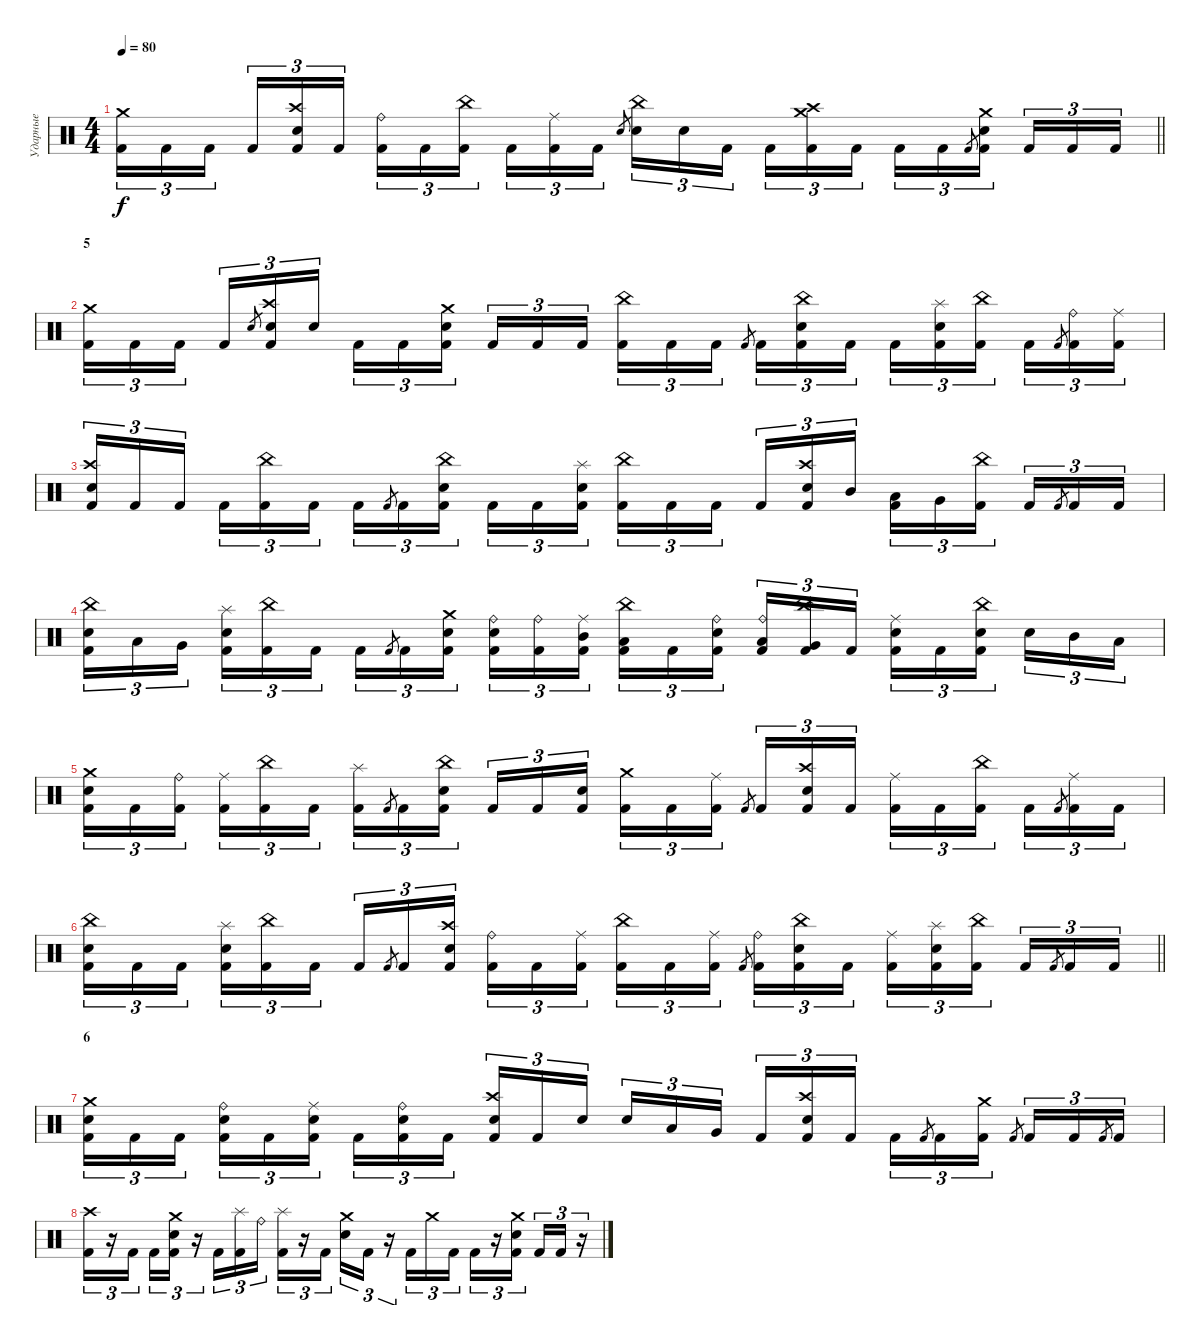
\track ("Ударные" "Ударные") {instrument percussion}
\staff {score}
\articulation defaults
\ts (4 4)
\tempo 80
\clef neutral
\barLineRight lightlight
\ks c
("Crash medium (hit)" "Kick (hit) 2").16{tu (3 2) dy f} "Kick (hit) 2".16{tu (3 2)} "Kick (hit) 2".16{tu (3 2) beam splitsecondary} "Kick (hit) 2".16{tu (3 2)} ("Crash high (hit)" "Electric Snare (hit)" "Kick (hit) 2").16{tu (3 2)} "Kick (hit) 2".16{tu (3 2)} ("Ride (bell)" "Kick (hit) 2").16{tu (3 2)} "Kick (hit) 2".16{tu (3 2)} ("China (hit)" "Kick (hit) 2").16{tu (3 2) beam splitsecondary} "Kick (hit) 2".16{tu (3 2)} ("Ride (middle)" "Kick (hit) 2").16{tu (3 2)} "Kick (hit) 2".16{tu (3 2)} "Electric Snare (hit)".8{gr} ("China (hit)" "Electric Snare (hit)").16{tu (3 2)} "Electric Snare (hit)".16{tu (3 2)} "Kick (hit) 2".16{tu (3 2) beam splitsecondary} "Kick (hit) 2".16{tu (3 2)} ("Crash medium (hit)" "Crash high (hit)" "Kick (hit) 2").16{tu (3 2)} "Kick (hit) 2".16{tu (3 2)} "Kick (hit) 2".16{tu (3 2)} "Kick (hit) 2".16{tu (3 2)} "Kick (hit) 2".8{gr} ("Crash medium (hit)" "Electric Snare (hit)" "Kick (hit) 2").16{tu (3 2) beam splitsecondary} "Kick (hit) 2".16{tu (3 2)} "Kick (hit) 2".16{tu (3 2)} "Kick (hit) 2".16{tu (3 2)} |
\section ("" "5")
("Crash medium (hit)" "Kick (hit) 2").16{tu (3 2)} "Kick (hit) 2".16{tu (3 2)} "Kick (hit) 2".16{tu (3 2) beam splitsecondary} "Kick (hit) 2".16{tu (3 2)} "Electric Snare (hit)".8{gr} ("Crash high (hit)" "Electric Snare (hit)" "Kick (hit) 2").16{tu (3 2)} "Electric Snare (hit)".16{tu (3 2)} "Kick (hit) 2".16{tu (3 2)} "Kick (hit) 2".16{tu (3 2)} ("Crash medium (hit)" "Electric Snare (hit)" "Kick (hit) 2").16{tu (3 2) beam splitsecondary} "Kick (hit) 2".16{tu (3 2)} "Kick (hit) 2".16{tu (3 2)} "Kick (hit) 2".16{tu (3 2)} ("China (hit)" "Kick (hit) 2").16{tu (3 2)} "Kick (hit) 2".16{tu (3 2)} "Kick (hit) 2".16{tu (3 2)} "Kick (hit) 2".8{gr beam splitsecondary} "Kick (hit) 2".16{tu (3 2)} ("China (hit)" "Electric Snare (hit)" "Kick (hit) 2").16{tu (3 2)} "Kick (hit) 2".16{tu (3 2)} "Kick (hit) 2".16{tu (3 2)} ("Splash (hit)" "Electric Snare (hit)" "Kick (hit) 2").16{tu (3 2)} ("China (hit)" "Kick (hit) 2").16{tu (3 2) beam splitsecondary} "Kick (hit) 2".16{tu (3 2)} "Kick (hit) 2".8{gr} ("Ride (bell)" "Kick (hit) 2").16{tu (3 2)} ("Ride (middle)" "Kick (hit) 2").16{tu (3 2)} |
("Crash high (hit)" "Electric Snare (hit)" "Kick (hit) 2").16{tu (3 2)} "Kick (hit) 2".16{tu (3 2)} "Kick (hit) 2".16{tu (3 2) beam splitsecondary} "Kick (hit) 2".16{tu (3 2)} ("China (hit)" "Kick (hit) 2").16{tu (3 2)} "Kick (hit) 2".16{tu (3 2)} "Kick (hit) 2".16{tu (3 2)} "Kick (hit) 2".8{gr} "Kick (hit) 2".16{tu (3 2)} ("China (hit)" "Electric Snare (hit)" "Kick (hit) 2").16{tu (3 2) beam splitsecondary} "Kick (hit) 2".16{tu (3 2)} "Kick (hit) 2".16{tu (3 2)} ("Splash (hit)" "Electric Snare (hit)" "Kick (hit) 2").16{tu (3 2)} ("China (hit)" "Kick (hit) 2").16{tu (3 2)} "Kick (hit) 2".16{tu (3 2)} "Kick (hit) 2".16{tu (3 2) beam splitsecondary} "Kick (hit) 2".16{tu (3 2)} ("Crash high (hit)" "Electric Snare (hit)" "Kick (hit) 2").16{tu (3 2)} "Mid Tom (hit)".16{tu (3 2)} ("Low Tom (hit)" "Kick (hit) 2").16{tu (3 2)} "Very Low Tom (hit)".16{tu (3 2)} ("China (hit)" "Kick (hit) 2").16{tu (3 2) beam splitsecondary} "Kick (hit) 2".16{tu (3 2)} "Kick (hit) 2".8{gr} "Kick (hit) 2".16{tu (3 2)} "Kick (hit) 2".16{tu (3 2)} |
("China (hit)" "Electric Snare (hit)" "Kick (hit) 2").16{tu (3 2)} "Low Tom (hit)".16{tu (3 2)} "Very Low Tom (hit)".16{tu (3 2) beam splitsecondary} ("Splash (hit)" "Electric Snare (hit)" "Kick (hit) 2").16{tu (3 2)} ("China (hit)" "Kick (hit) 2").16{tu (3 2)} "Kick (hit) 2".16{tu (3 2)} "Kick (hit) 2".16{tu (3 2)} "Kick (hit) 2".8{gr} "Kick (hit) 2".16{tu (3 2)} ("Crash medium (hit)" "Electric Snare (hit)" "Kick (hit) 2").16{tu (3 2) beam splitsecondary} ("Ride (bell)" "Electric Snare (hit)" "Kick (hit) 2").16{tu (3 2)} ("Ride (bell)" "Kick (hit) 2").16{tu (3 2)} ("Ride (middle)" "Mid Tom (hit)" "Kick (hit) 2").16{tu (3 2)} ("China (hit)" "Low Tom (hit)" "Kick (hit) 2").16{tu (3 2)} "Kick (hit) 2".16{tu (3 2)} ("Ride (bell)" "Electric Snare (hit)" "Kick (hit) 2").16{tu (3 2) beam splitsecondary} ("Ride (bell)" "Low Tom (hit)" "Kick (hit) 2").16{tu (3 2)} ("China (hit)" "Very Low Tom (hit)" "Kick (hit) 2").16{tu (3 2)} "Kick (hit) 2".16{tu (3 2)} ("Ride (middle)" "Electric Snare (hit)" "Kick (hit) 2").16{tu (3 2)} "Kick (hit) 2".16{tu (3 2)} ("China (hit)" "Electric Snare (hit)" "Kick (hit) 2").16{tu (3 2) beam splitsecondary} "Electric Snare (hit)".16{tu (3 2)} "Mid Tom (hit)".16{tu (3 2)} "Low Tom (hit)".16{tu (3 2)} |
("Crash medium (hit)" "Electric Snare (hit)" "Kick (hit) 2").16{tu (3 2)} "Kick (hit) 2".16{tu (3 2)} ("Ride (bell)" "Kick (hit) 2").16{tu (3 2) beam splitsecondary} ("Ride (middle)" "Kick (hit) 2").16{tu (3 2)} ("China (hit)" "Kick (hit) 2").16{tu (3 2)} "Kick (hit) 2".16{tu (3 2)} ("Splash (hit)" "Kick (hit) 2").16{tu (3 2)} "Kick (hit) 2".8{gr} "Kick (hit) 2".16{tu (3 2)} ("China (hit)" "Electric Snare (hit)" "Kick (hit) 2").16{tu (3 2) beam splitsecondary} "Kick (hit) 2".16{tu (3 2)} "Kick (hit) 2".16{tu (3 2)} ("Electric Snare (hit)" "Kick (hit) 2").16{tu (3 2)} ("Crash medium (hit)" "Kick (hit) 2").16{tu (3 2)} "Kick (hit) 2".16{tu (3 2)} ("Ride (middle)" "Kick (hit) 2").16{tu (3 2)} "Kick (hit) 2".8{gr beam splitsecondary} "Kick (hit) 2".16{tu (3 2)} ("Crash high (hit)" "Electric Snare (hit)" "Kick (hit) 2").16{tu (3 2)} "Kick (hit) 2".16{tu (3 2)} ("Ride (middle)" "Kick (hit) 2").16{tu (3 2)} "Kick (hit) 2".16{tu (3 2)} ("China (hit)" "Kick (hit) 2").16{tu (3 2) beam splitsecondary} "Kick (hit) 2".16{tu (3 2)} "Kick (hit) 2".8{gr} ("Ride (middle)" "Kick (hit) 2").16{tu (3 2)} "Kick (hit) 2".16{tu (3 2)} |
\barLineRight lightlight
("China (hit)" "Electric Snare (hit)" "Kick (hit) 2").16{tu (3 2)} "Kick (hit) 2".16{tu (3 2)} "Kick (hit) 2".16{tu (3 2) beam splitsecondary} ("Splash (hit)" "Electric Snare (hit)" "Kick (hit) 2").16{tu (3 2)} ("China (hit)" "Kick (hit) 2").16{tu (3 2)} "Kick (hit) 2".16{tu (3 2)} "Kick (hit) 2".16{tu (3 2)} "Kick (hit) 2".8{gr} "Kick (hit) 2".16{tu (3 2)} ("Crash high (hit)" "Electric Snare (hit)" "Kick (hit) 2").16{tu (3 2) beam splitsecondary} ("Ride (bell)" "Kick (hit) 2").16{tu (3 2)} "Kick (hit) 2".16{tu (3 2)} ("Ride (middle)" "Kick (hit) 2").16{tu (3 2)} ("China (hit)" "Kick (hit) 2").16{tu (3 2)} "Kick (hit) 2".16{tu (3 2)} ("Ride (middle)" "Kick (hit) 2").16{tu (3 2)} "Kick (hit) 2".8{gr beam splitsecondary} ("Ride (bell)" "Kick (hit) 2").16{tu (3 2)} ("China (hit)" "Electric Snare (hit)" "Kick (hit) 2").16{tu (3 2)} "Kick (hit) 2".16{tu (3 2)} ("Ride (middle)" "Kick (hit) 2").16{tu (3 2)} ("Splash (hit)" "Electric Snare (hit)" "Kick (hit) 2").16{tu (3 2)} ("China (hit)" "Kick (hit) 2").16{tu (3 2) beam splitsecondary} "Kick (hit) 2".16{tu (3 2)} "Kick (hit) 2".8{gr} "Kick (hit) 2".16{tu (3 2)} "Kick (hit) 2".16{tu (3 2)} |
\section ("" "6")
("Crash medium (hit)" "Electric Snare (hit)" "Kick (hit) 2").16{tu (3 2)} "Kick (hit) 2".16{tu (3 2)} "Kick (hit) 2".16{tu (3 2) beam splitsecondary} ("Ride (bell)" "Electric Snare (hit)" "Kick (hit) 2").16{tu (3 2)} "Kick (hit) 2".16{tu (3 2)} ("Ride (middle)" "Electric Snare (hit)" "Kick (hit) 2").16{tu (3 2)} "Kick (hit) 2".16{tu (3 2)} ("Ride (bell)" "Electric Snare (hit)" "Kick (hit) 2").16{tu (3 2)} "Kick (hit) 2".16{tu (3 2) beam splitsecondary} ("Crash high (hit)" "Electric Snare (hit)" "Kick (hit) 2").16{tu (3 2)} "Kick (hit) 2".16{tu (3 2)} "Electric Snare (hit)".16{tu (3 2)} "Electric Snare (hit)".16{tu (3 2)} "Low Tom (hit)".16{tu (3 2)} "Very Low Tom (hit)".16{tu (3 2) beam splitsecondary} "Kick (hit) 2".16{tu (3 2)} ("Crash high (hit)" "Electric Snare (hit)" "Kick (hit) 2").16{tu (3 2)} "Kick (hit) 2".16{tu (3 2)} "Kick (hit) 2".16{tu (3 2)} "Kick (hit) 2".8{gr} "Kick (hit) 2".16{tu (3 2)} ("Crash medium (hit)" "Kick (hit) 2").16{tu (3 2)} "Kick (hit) 2".8{gr beam splitsecondary} "Kick (hit) 2".16{tu (3 2)} "Kick (hit) 2".16{tu (3 2)} "Kick (hit) 2".8{gr} "Kick (hit) 2".16{tu (3 2)} |
("Crash high (hit)" "Kick (hit) 2").16{tu (3 2)} r.16{tu (3 2)} "Kick (hit) 2".16{tu (3 2) beam splitsecondary} "Kick (hit) 2".16{tu (3 2)} ("Crash medium (hit)" "Electric Snare (hit)" "Kick (hit) 2").16{tu (3 2)} r.16{tu (3 2)} "Kick (hit) 2".16{tu (3 2)} ("Splash (hit)" "Kick (hit) 2").16{tu (3 2)} "Ride (bell)".16{tu (3 2) beam splitsecondary} ("Splash (hit)" "Kick (hit) 2").16{tu (3 2)} r.16{tu (3 2)} "Kick (hit) 2".16{tu (3 2)} ("Crash medium (hit)" "Electric Snare (hit)").16{tu (3 2)} "Kick (hit) 2".16{tu (3 2)} r.16{tu (3 2)} "Kick (hit) 2".16{tu (3 2)} "Crash medium (hit)".16{tu (3 2)} "Kick (hit) 2".16{tu (3 2)} "Kick (hit) 2".16{tu (3 2)} r.16{tu (3 2)} ("Crash medium (hit)" "Electric Snare (hit)" "Kick (hit) 2").16{tu (3 2) beam splitsecondary} "Kick (hit) 2".16{tu (3 2)} "Kick (hit) 2".16{tu (3 2)} r.16{tu (3 2)}
